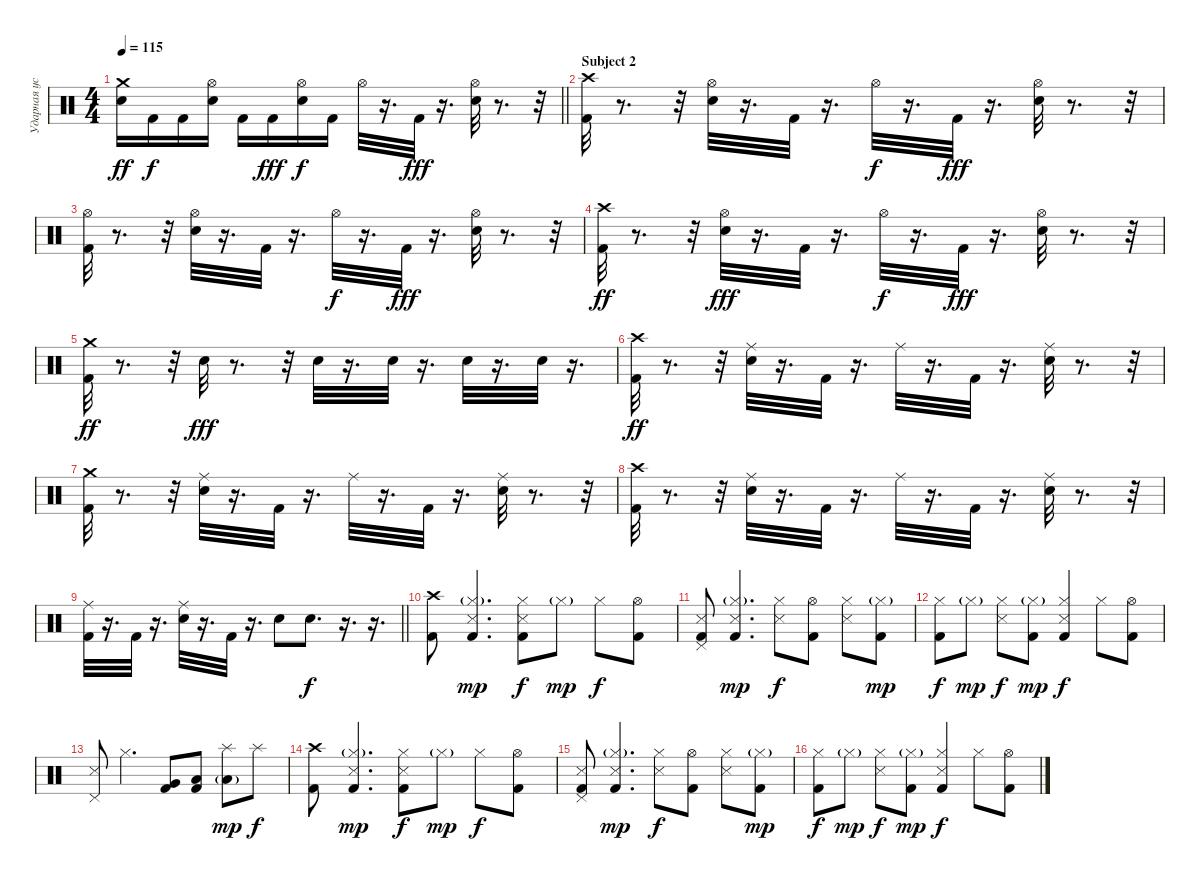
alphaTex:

\track ("Ударная установка" "Ударная ус") {instrument percussion}
\staff {score}
\articulation defaults
\ts (4 4)
\tempo 115
\clef neutral
\barLineRight lightlight
\ks c
("Snare (hit) 2" "Crash medium (hit)").16{dy ff} "Kick (hit) 2".16{dy f} "Kick (hit) 2".16 ("Snare (hit) 2" "Hi-Hat (open)").16 "Kick (hit) 2".16 "Kick (hit) 2".16{dy fff} ("Snare (hit) 2" "Hi-Hat (open)").16{dy f} "Kick (hit) 2".16 "Hi-Hat (open)".32 r.16{d} "Kick (hit) 2".32{dy fff} r.16{d} ("Snare (hit) 2" "Hi-Hat (open)").32 r.8{d} r.32 |
\section ("" "Subject 2")
("Crash high (hit)" "Kick (hit) 2").32 r.8{d} r.32 ("Hi-Hat (open)" "Snare (hit) 2").32 r.16{d} "Kick (hit) 2".32 r.16{d} "Hi-Hat (open)".32{dy f} r.16{d} "Kick (hit) 2".32{dy fff} r.16{d} ("Hi-Hat (open)" "Snare (hit) 2").32 r.8{d} r.32 |
("Hi-Hat (open)" "Kick (hit) 2").32 r.8{d} r.32 ("Hi-Hat (open)" "Snare (hit) 2").32 r.16{d} "Kick (hit) 2".32 r.16{d} "Hi-Hat (open)".32{dy f} r.16{d} "Kick (hit) 2".32{dy fff} r.16{d} ("Hi-Hat (open)" "Snare (hit) 2").32 r.8{d} r.32 |
("Kick (hit) 2" "Crash high (hit)").32{dy ff} r.8{d} r.32 ("Snare (hit) 2" "Hi-Hat (open)").32{dy fff} r.16{d} "Kick (hit) 2".32 r.16{d} "Hi-Hat (open)".32{dy f} r.16{d} "Kick (hit) 2".32{dy fff} r.16{d} ("Snare (hit) 2" "Hi-Hat (open)").32 r.8{d} r.32 |
("Kick (hit) 2" "Crash medium (hit)").32{dy ff} r.8{d} r.32 "Snare (hit) 2".32{dy fff} r.8{d} r.32 "Snare (hit) 2".32 r.16{d} "Snare (hit) 2".32 r.16{d} "Snare (hit) 2".32 r.16{d} "Snare (hit) 2".32 r.16{d} |
("Kick (hit) 2" "Crash high (hit)").32{dy ff} r.8{d} r.32 ("Ride (middle)" "Snare (hit) 2").32 r.16{d} "Kick (hit) 2".32 r.16{d} "Ride (middle)".32 r.16{d} "Kick (hit) 2".32 r.16{d} ("Ride (middle)" "Snare (hit) 2").32 r.8{d} r.32 |
("Crash medium (hit)" "Kick (hit) 2").32 r.8{d} r.32 ("Snare (hit) 2" "Ride (middle)").32 r.16{d} "Kick (hit) 2".32 r.16{d} "Ride (middle)".32 r.16{d} "Kick (hit) 2".32 r.16{d} ("Snare (hit) 2" "Ride (middle)").32 r.8{d} r.32 |
("Kick (hit) 2" "Crash high (hit)").32 r.8{d} r.32 ("Snare (hit) 2" "Ride (middle)").32 r.16{d} "Kick (hit) 2".32 r.16{d} "Ride (middle)".32 r.16{d} "Kick (hit) 2".32 r.16{d} ("Snare (hit) 2" "Ride (middle)").32 r.8{d} r.32 |
\barLineRight lightlight
("Ride (middle)" "Kick (hit) 2").32 r.16{d} "Kick (hit) 2".32 r.16{d} ("Ride (middle)" "Snare (hit) 2").32 r.16{d} "Kick (hit) 2".32 r.16{d} "Snare (hit) 2".8 "Snare (hit) 2".8{d dy f} r.16{d} r.16{d} |
("Crash high (hit)" "Kick (hit) 2").8 ("Hi-Hat (closed)"{g} "Snare (side stick) 3" "Kick (hit) 2").4{d dy mp} ("Hi-Hat (closed)" "Snare (side stick) 3" "Kick (hit) 2").8{dy f} "Hi-Hat (closed)"{g}.8{dy mp} "Hi-Hat (closed)".8{dy f} ("Hi-Hat (open)" "Kick (hit) 2").8 |
("Pedal Hi-Hat (hit)" "Snare (side stick) 3" "Kick (hit) 2").8 ("Hi-Hat (closed)"{g} "Snare (side stick) 3" "Kick (hit) 2").4{d dy mp} ("Hi-Hat (closed)" "Snare (side stick) 3").8{dy f} ("Hi-Hat (open)" "Kick (hit) 2").8 ("Hi-Hat (closed)" "Snare (side stick) 3").8 ("Hi-Hat (closed)"{g} "Kick (hit) 2").8{dy mp} |
("Hi-Hat (closed)" "Kick (hit) 2").8{dy f} "Hi-Hat (closed)"{g}.8{dy mp} ("Hi-Hat (closed)" "Snare (side stick) 3").8{dy f} ("Hi-Hat (closed)"{g} "Kick (hit) 2").8{dy mp} ("Hi-Hat (closed)" "Snare (side stick) 3" "Kick (hit) 2").4{dy f} "Hi-Hat (closed)".8 ("Hi-Hat (open)" "Kick (hit) 2").8 |
("Pedal Hi-Hat (hit)" "Snare (side stick) 3").8 "Hi-Hat (closed)".4{d} ("Very Low Tom (hit)" "Kick (hit) 2").8 ("Low Floor Tom (hit)" "Kick (hit) 2").8 ("Splash (hit)" "Low Floor Tom (hit)"{g}).8{dy mp} "Splash (hit)".8{dy f} |
("Crash high (hit)" "Kick (hit) 2").8 ("Hi-Hat (closed)"{g} "Snare (side stick) 3" "Kick (hit) 2").4{d dy mp} ("Hi-Hat (closed)" "Snare (side stick) 3" "Kick (hit) 2").8{dy f} "Hi-Hat (closed)"{g}.8{dy mp} "Hi-Hat (closed)".8{dy f} ("Hi-Hat (open)" "Kick (hit) 2").8 |
("Pedal Hi-Hat (hit)" "Snare (side stick) 3" "Kick (hit) 2").8 ("Hi-Hat (closed)"{g} "Snare (side stick) 3" "Kick (hit) 2").4{d dy mp} ("Hi-Hat (closed)" "Snare (side stick) 3").8{dy f} ("Hi-Hat (open)" "Kick (hit) 2").8 ("Hi-Hat (closed)" "Snare (side stick) 3").8 ("Hi-Hat (closed)"{g} "Kick (hit) 2").8{dy mp} |
("Hi-Hat (closed)" "Kick (hit) 2").8{dy f} "Hi-Hat (closed)"{g}.8{dy mp} ("Hi-Hat (closed)" "Snare (side stick) 3").8{dy f} ("Hi-Hat (closed)"{g} "Kick (hit) 2").8{dy mp} ("Hi-Hat (closed)" "Snare (side stick) 3" "Kick (hit) 2").4{dy f} "Hi-Hat (closed)".8 ("Hi-Hat (open)" "Kick (hit) 2").8
